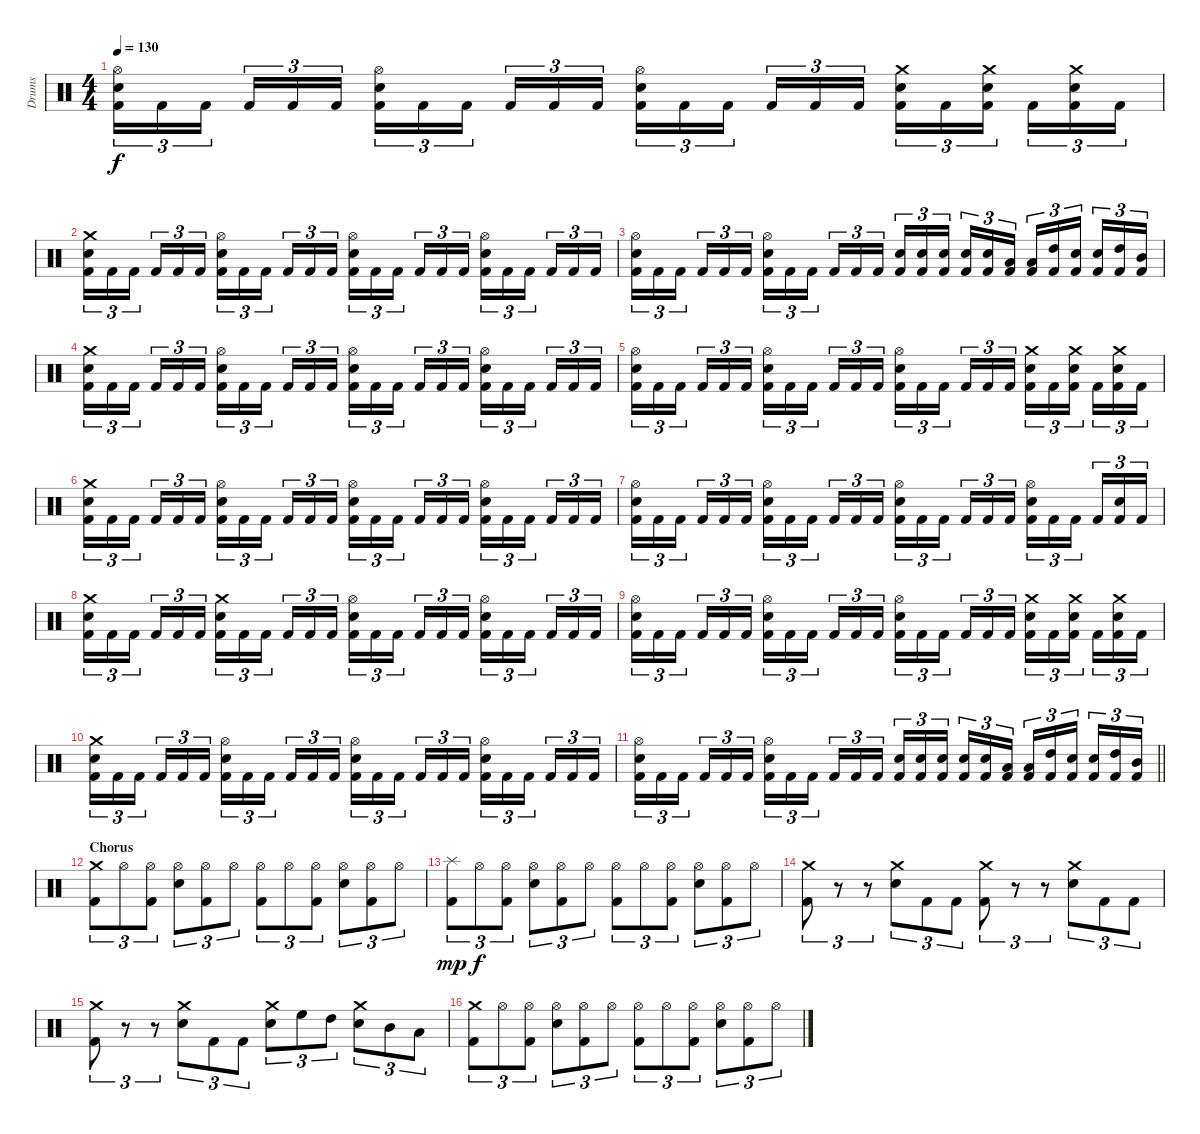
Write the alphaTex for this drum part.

\track ("Drums" "Drums") {instrument percussion}
\staff {score}
\articulation defaults
\ts (4 4)
\tempo 130
\clef neutral
\ks c
("Kick (hit) 2" "Electric Snare (hit)" "Hi-Hat (open)").16{tu (3 2) dy f} "Kick (hit) 2".16{tu (3 2)} "Kick (hit) 2".16{tu (3 2) beam splitsecondary} "Kick (hit) 2".16{tu (3 2)} "Kick (hit) 2".16{tu (3 2)} "Kick (hit) 2".16{tu (3 2)} ("Kick (hit) 2" "Electric Snare (hit)" "Hi-Hat (open)").16{tu (3 2)} "Kick (hit) 2".16{tu (3 2)} "Kick (hit) 2".16{tu (3 2) beam splitsecondary} "Kick (hit) 2".16{tu (3 2)} "Kick (hit) 2".16{tu (3 2)} "Kick (hit) 2".16{tu (3 2)} ("Kick (hit) 2" "Electric Snare (hit)" "Hi-Hat (open)").16{tu (3 2)} "Kick (hit) 2".16{tu (3 2)} "Kick (hit) 2".16{tu (3 2) beam splitsecondary} "Kick (hit) 2".16{tu (3 2)} "Kick (hit) 2".16{tu (3 2)} "Kick (hit) 2".16{tu (3 2)} ("Kick (hit) 2" "Electric Snare (hit)" "Crash medium (hit)").16{tu (3 2)} "Kick (hit) 2".16{tu (3 2)} ("Kick (hit) 2" "Electric Snare (hit)" "Crash medium (hit)").16{tu (3 2) beam splitsecondary} "Kick (hit) 2".16{tu (3 2)} ("Kick (hit) 2" "Electric Snare (hit)" "Crash medium (hit)").16{tu (3 2)} "Kick (hit) 2".16{tu (3 2)} |
("Kick (hit) 2" "Electric Snare (hit)" "Crash medium (hit)").16{tu (3 2)} "Kick (hit) 2".16{tu (3 2)} "Kick (hit) 2".16{tu (3 2) beam splitsecondary} "Kick (hit) 2".16{tu (3 2)} "Kick (hit) 2".16{tu (3 2)} "Kick (hit) 2".16{tu (3 2)} ("Kick (hit) 2" "Electric Snare (hit)" "Hi-Hat (open)").16{tu (3 2)} "Kick (hit) 2".16{tu (3 2)} "Kick (hit) 2".16{tu (3 2) beam splitsecondary} "Kick (hit) 2".16{tu (3 2)} "Kick (hit) 2".16{tu (3 2)} "Kick (hit) 2".16{tu (3 2)} ("Kick (hit) 2" "Electric Snare (hit)" "Hi-Hat (open)").16{tu (3 2)} "Kick (hit) 2".16{tu (3 2)} "Kick (hit) 2".16{tu (3 2) beam splitsecondary} "Kick (hit) 2".16{tu (3 2)} "Kick (hit) 2".16{tu (3 2)} "Kick (hit) 2".16{tu (3 2)} ("Kick (hit) 2" "Electric Snare (hit)" "Hi-Hat (open)").16{tu (3 2)} "Kick (hit) 2".16{tu (3 2)} "Kick (hit) 2".16{tu (3 2) beam splitsecondary} "Kick (hit) 2".16{tu (3 2)} "Kick (hit) 2".16{tu (3 2)} "Kick (hit) 2".16{tu (3 2)} |
("Kick (hit) 2" "Electric Snare (hit)" "Hi-Hat (open)").16{tu (3 2)} "Kick (hit) 2".16{tu (3 2)} "Kick (hit) 2".16{tu (3 2) beam splitsecondary} "Kick (hit) 2".16{tu (3 2)} "Kick (hit) 2".16{tu (3 2)} "Kick (hit) 2".16{tu (3 2)} ("Kick (hit) 2" "Electric Snare (hit)" "Hi-Hat (open)").16{tu (3 2)} "Kick (hit) 2".16{tu (3 2)} "Kick (hit) 2".16{tu (3 2) beam splitsecondary} "Kick (hit) 2".16{tu (3 2)} "Kick (hit) 2".16{tu (3 2)} "Kick (hit) 2".16{tu (3 2)} ("Kick (hit) 2" "Electric Snare (hit)").16{tu (3 2)} ("Kick (hit) 2" "Electric Snare (hit)").16{tu (3 2)} ("Kick (hit) 2" "Electric Snare (hit)").16{tu (3 2) beam splitsecondary} ("Kick (hit) 2" "Electric Snare (hit)").16{tu (3 2)} ("Kick (hit) 2" "Electric Snare (hit)").16{tu (3 2)} ("Kick (hit) 2" "Low Tom (hit)").16{tu (3 2)} ("Kick (hit) 2" "Low Tom (hit)").16{tu (3 2)} ("Kick (hit) 2" "High Tom (hit)").16{tu (3 2)} ("Kick (hit) 2" "Electric Snare (hit)").16{tu (3 2) beam splitsecondary} ("Kick (hit) 2" "Electric Snare (hit)").16{tu (3 2)} ("Kick (hit) 2" "High Tom (hit)").16{tu (3 2)} ("Kick (hit) 2" "Mid Tom (hit)").16{tu (3 2)} |
("Kick (hit) 2" "Electric Snare (hit)" "Crash medium (hit)").16{tu (3 2)} "Kick (hit) 2".16{tu (3 2)} "Kick (hit) 2".16{tu (3 2) beam splitsecondary} "Kick (hit) 2".16{tu (3 2)} "Kick (hit) 2".16{tu (3 2)} "Kick (hit) 2".16{tu (3 2)} ("Kick (hit) 2" "Electric Snare (hit)" "Hi-Hat (open)").16{tu (3 2)} "Kick (hit) 2".16{tu (3 2)} "Kick (hit) 2".16{tu (3 2) beam splitsecondary} "Kick (hit) 2".16{tu (3 2)} "Kick (hit) 2".16{tu (3 2)} "Kick (hit) 2".16{tu (3 2)} ("Kick (hit) 2" "Electric Snare (hit)" "Hi-Hat (open)").16{tu (3 2)} "Kick (hit) 2".16{tu (3 2)} "Kick (hit) 2".16{tu (3 2) beam splitsecondary} "Kick (hit) 2".16{tu (3 2)} "Kick (hit) 2".16{tu (3 2)} "Kick (hit) 2".16{tu (3 2)} ("Kick (hit) 2" "Electric Snare (hit)" "Hi-Hat (open)").16{tu (3 2)} "Kick (hit) 2".16{tu (3 2)} "Kick (hit) 2".16{tu (3 2) beam splitsecondary} "Kick (hit) 2".16{tu (3 2)} "Kick (hit) 2".16{tu (3 2)} "Kick (hit) 2".16{tu (3 2)} |
("Kick (hit) 2" "Electric Snare (hit)" "Hi-Hat (open)").16{tu (3 2)} "Kick (hit) 2".16{tu (3 2)} "Kick (hit) 2".16{tu (3 2) beam splitsecondary} "Kick (hit) 2".16{tu (3 2)} "Kick (hit) 2".16{tu (3 2)} "Kick (hit) 2".16{tu (3 2)} ("Kick (hit) 2" "Electric Snare (hit)" "Hi-Hat (open)").16{tu (3 2)} "Kick (hit) 2".16{tu (3 2)} "Kick (hit) 2".16{tu (3 2) beam splitsecondary} "Kick (hit) 2".16{tu (3 2)} "Kick (hit) 2".16{tu (3 2)} "Kick (hit) 2".16{tu (3 2)} ("Kick (hit) 2" "Electric Snare (hit)" "Hi-Hat (open)").16{tu (3 2)} "Kick (hit) 2".16{tu (3 2)} "Kick (hit) 2".16{tu (3 2) beam splitsecondary} "Kick (hit) 2".16{tu (3 2)} "Kick (hit) 2".16{tu (3 2)} "Kick (hit) 2".16{tu (3 2)} ("Kick (hit) 2" "Electric Snare (hit)" "Crash medium (hit)").16{tu (3 2)} "Kick (hit) 2".16{tu (3 2)} ("Kick (hit) 2" "Electric Snare (hit)" "Crash medium (hit)").16{tu (3 2) beam splitsecondary} "Kick (hit) 2".16{tu (3 2)} ("Kick (hit) 2" "Electric Snare (hit)" "Crash medium (hit)").16{tu (3 2)} "Kick (hit) 2".16{tu (3 2)} |
("Kick (hit) 2" "Electric Snare (hit)" "Crash medium (hit)").16{tu (3 2)} "Kick (hit) 2".16{tu (3 2)} "Kick (hit) 2".16{tu (3 2) beam splitsecondary} "Kick (hit) 2".16{tu (3 2)} "Kick (hit) 2".16{tu (3 2)} "Kick (hit) 2".16{tu (3 2)} ("Kick (hit) 2" "Electric Snare (hit)" "Hi-Hat (open)").16{tu (3 2)} "Kick (hit) 2".16{tu (3 2)} "Kick (hit) 2".16{tu (3 2) beam splitsecondary} "Kick (hit) 2".16{tu (3 2)} "Kick (hit) 2".16{tu (3 2)} "Kick (hit) 2".16{tu (3 2)} ("Kick (hit) 2" "Electric Snare (hit)" "Hi-Hat (open)").16{tu (3 2)} "Kick (hit) 2".16{tu (3 2)} "Kick (hit) 2".16{tu (3 2) beam splitsecondary} "Kick (hit) 2".16{tu (3 2)} "Kick (hit) 2".16{tu (3 2)} "Kick (hit) 2".16{tu (3 2)} ("Kick (hit) 2" "Electric Snare (hit)" "Hi-Hat (open)").16{tu (3 2)} "Kick (hit) 2".16{tu (3 2)} "Kick (hit) 2".16{tu (3 2) beam splitsecondary} "Kick (hit) 2".16{tu (3 2)} "Kick (hit) 2".16{tu (3 2)} "Kick (hit) 2".16{tu (3 2)} |
("Kick (hit) 2" "Electric Snare (hit)" "Hi-Hat (open)").16{tu (3 2)} "Kick (hit) 2".16{tu (3 2)} "Kick (hit) 2".16{tu (3 2) beam splitsecondary} "Kick (hit) 2".16{tu (3 2)} "Kick (hit) 2".16{tu (3 2)} "Kick (hit) 2".16{tu (3 2)} ("Kick (hit) 2" "Electric Snare (hit)" "Hi-Hat (open)").16{tu (3 2)} "Kick (hit) 2".16{tu (3 2)} "Kick (hit) 2".16{tu (3 2) beam splitsecondary} "Kick (hit) 2".16{tu (3 2)} "Kick (hit) 2".16{tu (3 2)} "Kick (hit) 2".16{tu (3 2)} ("Kick (hit) 2" "Electric Snare (hit)" "Hi-Hat (open)").16{tu (3 2)} "Kick (hit) 2".16{tu (3 2)} "Kick (hit) 2".16{tu (3 2) beam splitsecondary} "Kick (hit) 2".16{tu (3 2)} "Kick (hit) 2".16{tu (3 2)} "Kick (hit) 2".16{tu (3 2)} ("Kick (hit) 2" "Electric Snare (hit)" "Hi-Hat (open)").16{tu (3 2)} "Kick (hit) 2".16{tu (3 2)} "Kick (hit) 2".16{tu (3 2) beam splitsecondary} "Kick (hit) 2".16{tu (3 2)} ("Kick (hit) 2" "Electric Snare (hit)").16{tu (3 2)} "Kick (hit) 2".16{tu (3 2)} |
("Kick (hit) 2" "Electric Snare (hit)" "Crash medium (hit)").16{tu (3 2)} "Kick (hit) 2".16{tu (3 2)} "Kick (hit) 2".16{tu (3 2) beam splitsecondary} "Kick (hit) 2".16{tu (3 2)} "Kick (hit) 2".16{tu (3 2)} "Kick (hit) 2".16{tu (3 2)} ("Kick (hit) 2" "Electric Snare (hit)" "Crash medium (hit)").16{tu (3 2)} "Kick (hit) 2".16{tu (3 2)} "Kick (hit) 2".16{tu (3 2) beam splitsecondary} "Kick (hit) 2".16{tu (3 2)} "Kick (hit) 2".16{tu (3 2)} "Kick (hit) 2".16{tu (3 2)} ("Kick (hit) 2" "Electric Snare (hit)" "Hi-Hat (open)").16{tu (3 2)} "Kick (hit) 2".16{tu (3 2)} "Kick (hit) 2".16{tu (3 2) beam splitsecondary} "Kick (hit) 2".16{tu (3 2)} "Kick (hit) 2".16{tu (3 2)} "Kick (hit) 2".16{tu (3 2)} ("Kick (hit) 2" "Electric Snare (hit)" "Hi-Hat (open)").16{tu (3 2)} "Kick (hit) 2".16{tu (3 2)} "Kick (hit) 2".16{tu (3 2) beam splitsecondary} "Kick (hit) 2".16{tu (3 2)} "Kick (hit) 2".16{tu (3 2)} "Kick (hit) 2".16{tu (3 2)} |
("Kick (hit) 2" "Electric Snare (hit)" "Hi-Hat (open)").16{tu (3 2)} "Kick (hit) 2".16{tu (3 2)} "Kick (hit) 2".16{tu (3 2) beam splitsecondary} "Kick (hit) 2".16{tu (3 2)} "Kick (hit) 2".16{tu (3 2)} "Kick (hit) 2".16{tu (3 2)} ("Kick (hit) 2" "Electric Snare (hit)" "Hi-Hat (open)").16{tu (3 2)} "Kick (hit) 2".16{tu (3 2)} "Kick (hit) 2".16{tu (3 2) beam splitsecondary} "Kick (hit) 2".16{tu (3 2)} "Kick (hit) 2".16{tu (3 2)} "Kick (hit) 2".16{tu (3 2)} ("Kick (hit) 2" "Electric Snare (hit)" "Hi-Hat (open)").16{tu (3 2)} "Kick (hit) 2".16{tu (3 2)} "Kick (hit) 2".16{tu (3 2) beam splitsecondary} "Kick (hit) 2".16{tu (3 2)} "Kick (hit) 2".16{tu (3 2)} "Kick (hit) 2".16{tu (3 2)} ("Kick (hit) 2" "Electric Snare (hit)" "Crash medium (hit)").16{tu (3 2)} "Kick (hit) 2".16{tu (3 2)} ("Kick (hit) 2" "Electric Snare (hit)" "Crash medium (hit)").16{tu (3 2) beam splitsecondary} "Kick (hit) 2".16{tu (3 2)} ("Kick (hit) 2" "Electric Snare (hit)" "Crash medium (hit)").16{tu (3 2)} "Kick (hit) 2".16{tu (3 2)} |
("Kick (hit) 2" "Electric Snare (hit)" "Crash medium (hit)").16{tu (3 2)} "Kick (hit) 2".16{tu (3 2)} "Kick (hit) 2".16{tu (3 2) beam splitsecondary} "Kick (hit) 2".16{tu (3 2)} "Kick (hit) 2".16{tu (3 2)} "Kick (hit) 2".16{tu (3 2)} ("Kick (hit) 2" "Electric Snare (hit)" "Hi-Hat (open)").16{tu (3 2)} "Kick (hit) 2".16{tu (3 2)} "Kick (hit) 2".16{tu (3 2) beam splitsecondary} "Kick (hit) 2".16{tu (3 2)} "Kick (hit) 2".16{tu (3 2)} "Kick (hit) 2".16{tu (3 2)} ("Kick (hit) 2" "Electric Snare (hit)" "Hi-Hat (open)").16{tu (3 2)} "Kick (hit) 2".16{tu (3 2)} "Kick (hit) 2".16{tu (3 2) beam splitsecondary} "Kick (hit) 2".16{tu (3 2)} "Kick (hit) 2".16{tu (3 2)} "Kick (hit) 2".16{tu (3 2)} ("Kick (hit) 2" "Electric Snare (hit)" "Hi-Hat (open)").16{tu (3 2)} "Kick (hit) 2".16{tu (3 2)} "Kick (hit) 2".16{tu (3 2) beam splitsecondary} "Kick (hit) 2".16{tu (3 2)} "Kick (hit) 2".16{tu (3 2)} "Kick (hit) 2".16{tu (3 2)} |
\barLineRight lightlight
("Kick (hit) 2" "Electric Snare (hit)" "Hi-Hat (open)").16{tu (3 2)} "Kick (hit) 2".16{tu (3 2)} "Kick (hit) 2".16{tu (3 2) beam splitsecondary} "Kick (hit) 2".16{tu (3 2)} "Kick (hit) 2".16{tu (3 2)} "Kick (hit) 2".16{tu (3 2)} ("Kick (hit) 2" "Electric Snare (hit)" "Hi-Hat (open)").16{tu (3 2)} "Kick (hit) 2".16{tu (3 2)} "Kick (hit) 2".16{tu (3 2) beam splitsecondary} "Kick (hit) 2".16{tu (3 2)} "Kick (hit) 2".16{tu (3 2)} "Kick (hit) 2".16{tu (3 2)} ("Kick (hit) 2" "Electric Snare (hit)").16{tu (3 2)} ("Kick (hit) 2" "Electric Snare (hit)").16{tu (3 2)} ("Kick (hit) 2" "Electric Snare (hit)").16{tu (3 2) beam splitsecondary} ("Kick (hit) 2" "Electric Snare (hit)").16{tu (3 2)} ("Kick (hit) 2" "Electric Snare (hit)").16{tu (3 2)} ("Kick (hit) 2" "Low Tom (hit)").16{tu (3 2)} ("Kick (hit) 2" "Low Tom (hit)").16{tu (3 2)} ("Kick (hit) 2" "High Tom (hit)").16{tu (3 2)} ("Kick (hit) 2" "Electric Snare (hit)").16{tu (3 2) beam splitsecondary} ("Kick (hit) 2" "Electric Snare (hit)").16{tu (3 2)} ("Kick (hit) 2" "High Tom (hit)").16{tu (3 2)} ("Kick (hit) 2" "Mid Tom (hit)").16{tu (3 2)} |
\section ("" "Chorus")
("Kick (hit) 2" "Crash medium (hit)").8{tu (3 2)} "Hi-Hat (open)".8{tu (3 2)} ("Kick (hit) 2" "Hi-Hat (open)").8{tu (3 2)} ("Electric Snare (hit)" "Hi-Hat (open)").8{tu (3 2)} ("Kick (hit) 2" "Hi-Hat (open)").8{tu (3 2)} "Hi-Hat (open)".8{tu (3 2)} ("Kick (hit) 2" "Hi-Hat (open)").8{tu (3 2)} "Hi-Hat (open)".8{tu (3 2)} ("Kick (hit) 2" "Hi-Hat (open)").8{tu (3 2)} ("Electric Snare (hit)" "Hi-Hat (open)").8{tu (3 2)} ("Kick (hit) 2" "Hi-Hat (open)").8{tu (3 2)} "Hi-Hat (open)".8{tu (3 2)} |
("Kick (hit) 2" "Splash (hit)").8{tu (3 2) dy mp} "Hi-Hat (open)".8{tu (3 2) dy f} ("Kick (hit) 2" "Hi-Hat (open)").8{tu (3 2)} ("Electric Snare (hit)" "Hi-Hat (open)").8{tu (3 2)} ("Kick (hit) 2" "Hi-Hat (open)").8{tu (3 2)} "Hi-Hat (open)".8{tu (3 2)} ("Kick (hit) 2" "Hi-Hat (open)").8{tu (3 2)} "Hi-Hat (open)".8{tu (3 2)} ("Kick (hit) 2" "Hi-Hat (open)").8{tu (3 2)} ("Electric Snare (hit)" "Hi-Hat (open)").8{tu (3 2)} ("Kick (hit) 2" "Hi-Hat (open)").8{tu (3 2)} "Hi-Hat (open)".8{tu (3 2)} |
("Kick (hit) 2" "Crash medium (hit)").8{tu (3 2)} r.8{tu (3 2)} r.8{tu (3 2)} ("Electric Snare (hit)" "Crash medium (hit)").8{tu (3 2)} "Kick (hit) 2".8{tu (3 2)} "Kick (hit) 2".8{tu (3 2)} ("Kick (hit) 2" "Crash medium (hit)").8{tu (3 2)} r.8{tu (3 2)} r.8{tu (3 2)} ("Electric Snare (hit)" "Crash medium (hit)").8{tu (3 2)} "Kick (hit) 2".8{tu (3 2)} "Kick (hit) 2".8{tu (3 2)} |
("Kick (hit) 2" "Crash medium (hit)").8{tu (3 2)} r.8{tu (3 2)} r.8{tu (3 2)} ("Electric Snare (hit)" "Crash medium (hit)").8{tu (3 2)} "Kick (hit) 2".8{tu (3 2)} "Kick (hit) 2".8{tu (3 2)} ("Electric Snare (hit)" "Crash medium (hit)").8{tu (3 2)} "High Floor Tom (hit)".8{tu (3 2)} "High Tom (hit)".8{tu (3 2)} ("Electric Snare (hit)" "Crash medium (hit)").8{tu (3 2)} "Mid Tom (hit)".8{tu (3 2)} "Low Tom (hit)".8{tu (3 2)} |
("Kick (hit) 2" "Crash medium (hit)").8{tu (3 2)} "Hi-Hat (open)".8{tu (3 2)} ("Kick (hit) 2" "Hi-Hat (open)").8{tu (3 2)} ("Electric Snare (hit)" "Hi-Hat (open)").8{tu (3 2)} ("Kick (hit) 2" "Hi-Hat (open)").8{tu (3 2)} "Hi-Hat (open)".8{tu (3 2)} ("Kick (hit) 2" "Hi-Hat (open)").8{tu (3 2)} "Hi-Hat (open)".8{tu (3 2)} ("Kick (hit) 2" "Hi-Hat (open)").8{tu (3 2)} ("Electric Snare (hit)" "Hi-Hat (open)").8{tu (3 2)} ("Kick (hit) 2" "Hi-Hat (open)").8{tu (3 2)} "Hi-Hat (open)".8{tu (3 2)}
